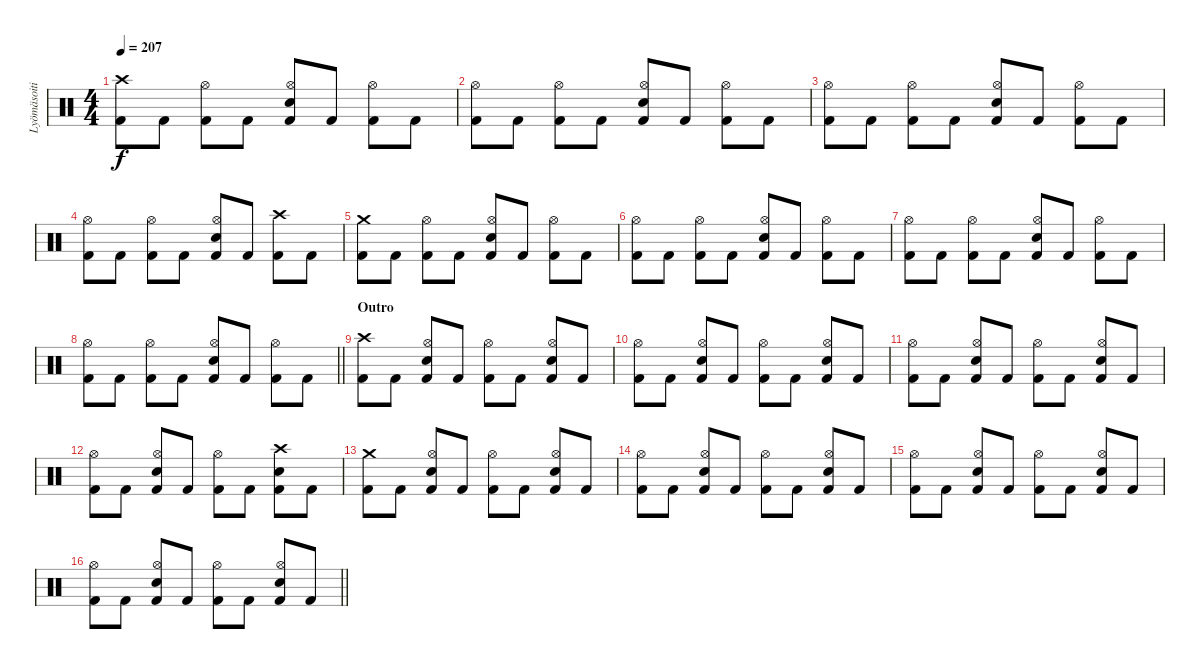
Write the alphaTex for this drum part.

\track ("Lyömäsoitin" "Lyömäsoiti") {instrument percussion}
\staff {score}
\articulation defaults
\ts (4 4)
\tempo 207
\clef neutral
\ks c
("Crash high (hit)" "Kick (hit) 2").8{dy f} "Kick (hit) 2".8 ("Hi-Hat (open)" "Kick (hit) 2").8 "Kick (hit) 2".8 ("Hi-Hat (open)" "Snare (hit) 2" "Kick (hit) 2").8 "Kick (hit) 2".8 ("Hi-Hat (open)" "Kick (hit) 2").8 "Kick (hit) 2".8 |
("Hi-Hat (open)" "Kick (hit) 2").8 "Kick (hit) 2".8 ("Hi-Hat (open)" "Kick (hit) 2").8 "Kick (hit) 2".8 ("Hi-Hat (open)" "Snare (hit) 2" "Kick (hit) 2").8 "Kick (hit) 2".8 ("Hi-Hat (open)" "Kick (hit) 2").8 "Kick (hit) 2".8 |
("Hi-Hat (open)" "Kick (hit) 2").8 "Kick (hit) 2".8 ("Hi-Hat (open)" "Kick (hit) 2").8 "Kick (hit) 2".8 ("Hi-Hat (open)" "Snare (hit) 2" "Kick (hit) 2").8 "Kick (hit) 2".8 ("Hi-Hat (open)" "Kick (hit) 2").8 "Kick (hit) 2".8 |
("Hi-Hat (open)" "Kick (hit) 2").8 "Kick (hit) 2".8 ("Hi-Hat (open)" "Kick (hit) 2").8 "Kick (hit) 2".8 ("Hi-Hat (open)" "Snare (hit) 2" "Kick (hit) 2").8 "Kick (hit) 2".8 ("Crash high (hit)" "Kick (hit) 2").8 "Kick (hit) 2".8 |
("Crash medium (hit)" "Kick (hit) 2").8 "Kick (hit) 2".8 ("Hi-Hat (open)" "Kick (hit) 2").8 "Kick (hit) 2".8 ("Hi-Hat (open)" "Snare (hit) 2" "Kick (hit) 2").8 "Kick (hit) 2".8 ("Hi-Hat (open)" "Kick (hit) 2").8 "Kick (hit) 2".8 |
("Hi-Hat (open)" "Kick (hit) 2").8 "Kick (hit) 2".8 ("Hi-Hat (open)" "Kick (hit) 2").8 "Kick (hit) 2".8 ("Hi-Hat (open)" "Snare (hit) 2" "Kick (hit) 2").8 "Kick (hit) 2".8 ("Hi-Hat (open)" "Kick (hit) 2").8 "Kick (hit) 2".8 |
("Hi-Hat (open)" "Kick (hit) 2").8 "Kick (hit) 2".8 ("Hi-Hat (open)" "Kick (hit) 2").8 "Kick (hit) 2".8 ("Hi-Hat (open)" "Snare (hit) 2" "Kick (hit) 2").8 "Kick (hit) 2".8 ("Hi-Hat (open)" "Kick (hit) 2").8 "Kick (hit) 2".8 |
\barLineRight lightlight
("Hi-Hat (open)" "Kick (hit) 2").8 "Kick (hit) 2".8 ("Hi-Hat (open)" "Kick (hit) 2").8 "Kick (hit) 2".8 ("Hi-Hat (open)" "Snare (hit) 2" "Kick (hit) 2").8 "Kick (hit) 2".8 ("Hi-Hat (open)" "Kick (hit) 2").8 "Kick (hit) 2".8 |
\section ("" "Outro")
("Crash high (hit)" "Kick (hit) 2").8 "Kick (hit) 2".8 ("Hi-Hat (open)" "Snare (hit) 2" "Kick (hit) 2").8 "Kick (hit) 2".8 ("Hi-Hat (open)" "Kick (hit) 2").8 "Kick (hit) 2".8 ("Hi-Hat (open)" "Snare (hit) 2" "Kick (hit) 2").8 "Kick (hit) 2".8 |
("Hi-Hat (open)" "Kick (hit) 2").8 "Kick (hit) 2".8 ("Hi-Hat (open)" "Snare (hit) 2" "Kick (hit) 2").8 "Kick (hit) 2".8 ("Hi-Hat (open)" "Kick (hit) 2").8 "Kick (hit) 2".8 ("Hi-Hat (open)" "Snare (hit) 2" "Kick (hit) 2").8 "Kick (hit) 2".8 |
("Hi-Hat (open)" "Kick (hit) 2").8 "Kick (hit) 2".8 ("Hi-Hat (open)" "Snare (hit) 2" "Kick (hit) 2").8 "Kick (hit) 2".8 ("Hi-Hat (open)" "Kick (hit) 2").8 "Kick (hit) 2".8 ("Hi-Hat (open)" "Snare (hit) 2" "Kick (hit) 2").8 "Kick (hit) 2".8 |
("Hi-Hat (open)" "Kick (hit) 2").8 "Kick (hit) 2".8 ("Hi-Hat (open)" "Snare (hit) 2" "Kick (hit) 2").8 "Kick (hit) 2".8 ("Hi-Hat (open)" "Kick (hit) 2").8 "Kick (hit) 2".8 ("Crash high (hit)" "Snare (hit) 2" "Kick (hit) 2").8 "Kick (hit) 2".8 |
("Crash medium (hit)" "Kick (hit) 2").8 "Kick (hit) 2".8 ("Hi-Hat (open)" "Snare (hit) 2" "Kick (hit) 2").8 "Kick (hit) 2".8 ("Hi-Hat (open)" "Kick (hit) 2").8 "Kick (hit) 2".8 ("Hi-Hat (open)" "Snare (hit) 2" "Kick (hit) 2").8 "Kick (hit) 2".8 |
("Hi-Hat (open)" "Kick (hit) 2").8 "Kick (hit) 2".8 ("Hi-Hat (open)" "Snare (hit) 2" "Kick (hit) 2").8 "Kick (hit) 2".8 ("Hi-Hat (open)" "Kick (hit) 2").8 "Kick (hit) 2".8 ("Hi-Hat (open)" "Snare (hit) 2" "Kick (hit) 2").8 "Kick (hit) 2".8 |
("Hi-Hat (open)" "Kick (hit) 2").8 "Kick (hit) 2".8 ("Hi-Hat (open)" "Snare (hit) 2" "Kick (hit) 2").8 "Kick (hit) 2".8 ("Hi-Hat (open)" "Kick (hit) 2").8 "Kick (hit) 2".8 ("Hi-Hat (open)" "Snare (hit) 2" "Kick (hit) 2").8 "Kick (hit) 2".8 |
\barLineRight lightlight
("Hi-Hat (open)" "Kick (hit) 2").8 "Kick (hit) 2".8 ("Hi-Hat (open)" "Snare (hit) 2" "Kick (hit) 2").8 "Kick (hit) 2".8 ("Hi-Hat (open)" "Kick (hit) 2").8 "Kick (hit) 2".8 ("Hi-Hat (open)" "Snare (hit) 2" "Kick (hit) 2").8 "Kick (hit) 2".8
